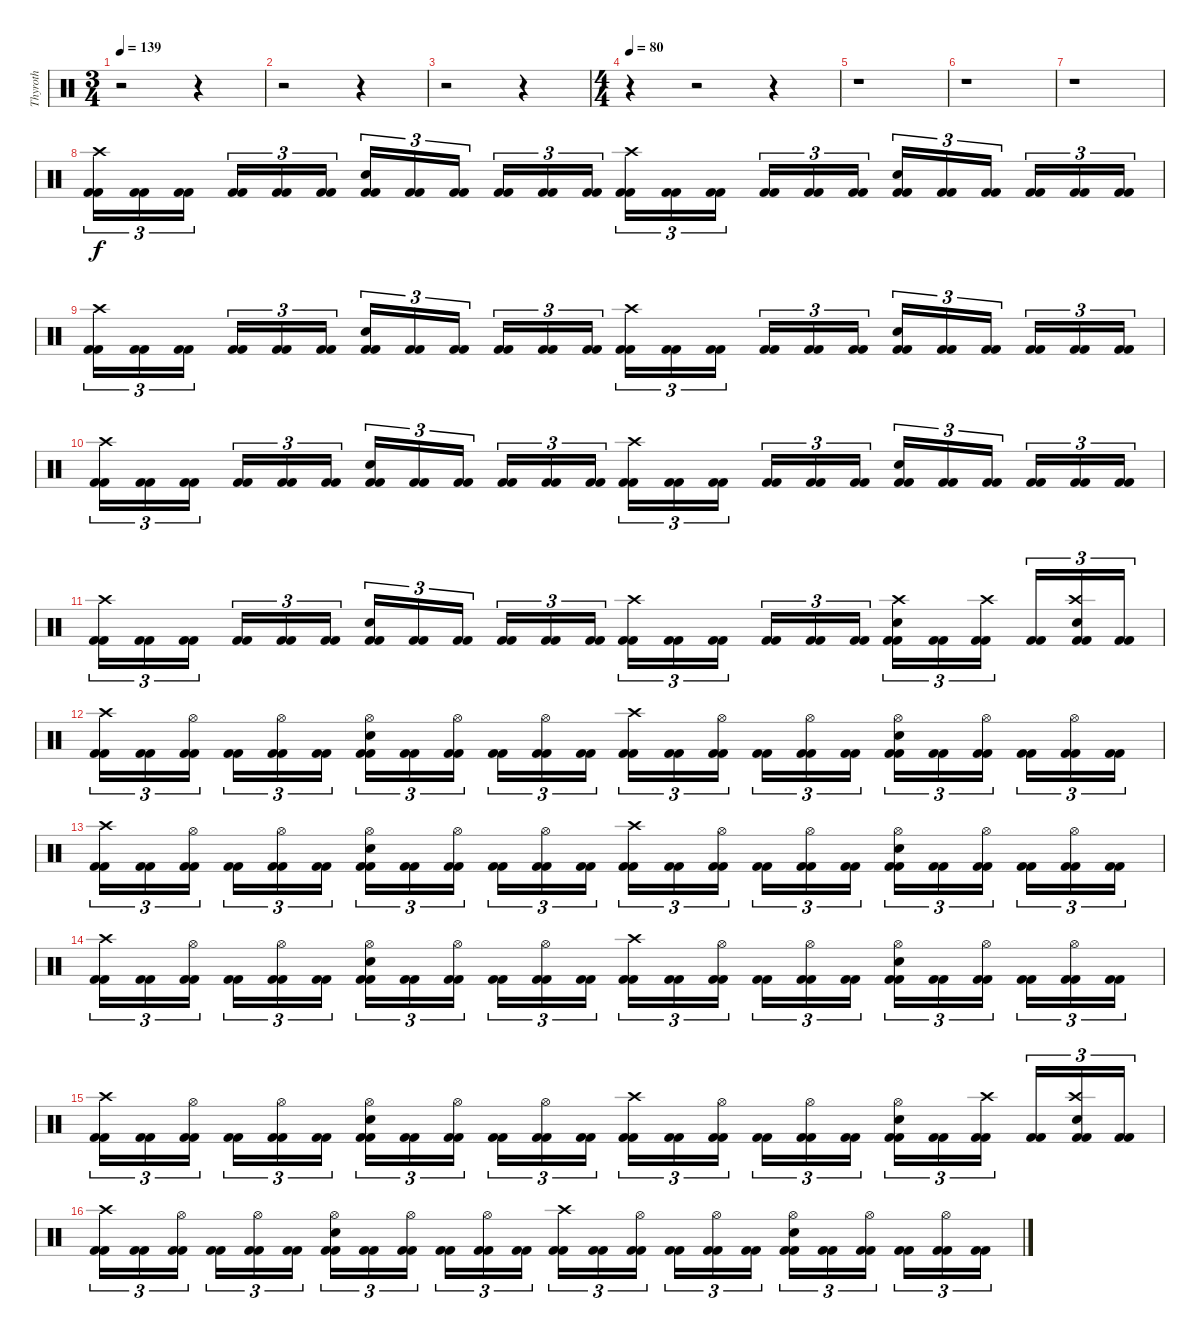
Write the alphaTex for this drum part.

\track ("Thyroth" "Thyroth") {instrument percussion}
\staff {score}
\articulation defaults
\ts (3 4)
\tempo 139
\clef neutral
\ks c
r.2{dy f} r.4 |
r.2 r.4 |
r.2 r.4 |
\ts (4 4)
\tempo 80
r.4 r.2 r.4 |
r.1 |
r.1 |
r.1{volume 0} |
("Kick (hit) 2" "Kick (hit) 2" "Crash high (hit)").16{tu (3 2) volume 16} ("Kick (hit) 2" "Kick (hit) 2").16{tu (3 2)} ("Kick (hit) 2" "Kick (hit) 2").16{tu (3 2)} ("Kick (hit) 2" "Kick (hit) 2").16{tu (3 2)} ("Kick (hit) 2" "Kick (hit) 2").16{tu (3 2)} ("Kick (hit) 2" "Kick (hit) 2").16{tu (3 2)} ("Kick (hit) 2" "Kick (hit) 2" "Snare (hit) 2").16{tu (3 2)} ("Kick (hit) 2" "Kick (hit) 2").16{tu (3 2)} ("Kick (hit) 2" "Kick (hit) 2").16{tu (3 2)} ("Kick (hit) 2" "Kick (hit) 2").16{tu (3 2)} ("Kick (hit) 2" "Kick (hit) 2").16{tu (3 2)} ("Kick (hit) 2" "Kick (hit) 2").16{tu (3 2)} ("Kick (hit) 2" "Kick (hit) 2" "Crash high (hit)").16{tu (3 2)} ("Kick (hit) 2" "Kick (hit) 2").16{tu (3 2)} ("Kick (hit) 2" "Kick (hit) 2").16{tu (3 2)} ("Kick (hit) 2" "Kick (hit) 2").16{tu (3 2)} ("Kick (hit) 2" "Kick (hit) 2").16{tu (3 2)} ("Kick (hit) 2" "Kick (hit) 2").16{tu (3 2)} ("Kick (hit) 2" "Kick (hit) 2" "Snare (hit) 2").16{tu (3 2)} ("Kick (hit) 2" "Kick (hit) 2").16{tu (3 2)} ("Kick (hit) 2" "Kick (hit) 2").16{tu (3 2)} ("Kick (hit) 2" "Kick (hit) 2").16{tu (3 2)} ("Kick (hit) 2" "Kick (hit) 2").16{tu (3 2)} ("Kick (hit) 2" "Kick (hit) 2").16{tu (3 2)} |
("Kick (hit) 2" "Kick (hit) 2" "Crash high (hit)").16{tu (3 2)} ("Kick (hit) 2" "Kick (hit) 2").16{tu (3 2)} ("Kick (hit) 2" "Kick (hit) 2").16{tu (3 2)} ("Kick (hit) 2" "Kick (hit) 2").16{tu (3 2)} ("Kick (hit) 2" "Kick (hit) 2").16{tu (3 2)} ("Kick (hit) 2" "Kick (hit) 2").16{tu (3 2)} ("Kick (hit) 2" "Kick (hit) 2" "Snare (hit) 2").16{tu (3 2)} ("Kick (hit) 2" "Kick (hit) 2").16{tu (3 2)} ("Kick (hit) 2" "Kick (hit) 2").16{tu (3 2)} ("Kick (hit) 2" "Kick (hit) 2").16{tu (3 2)} ("Kick (hit) 2" "Kick (hit) 2").16{tu (3 2)} ("Kick (hit) 2" "Kick (hit) 2").16{tu (3 2)} ("Kick (hit) 2" "Kick (hit) 2" "Crash high (hit)").16{tu (3 2)} ("Kick (hit) 2" "Kick (hit) 2").16{tu (3 2)} ("Kick (hit) 2" "Kick (hit) 2").16{tu (3 2)} ("Kick (hit) 2" "Kick (hit) 2").16{tu (3 2)} ("Kick (hit) 2" "Kick (hit) 2").16{tu (3 2)} ("Kick (hit) 2" "Kick (hit) 2").16{tu (3 2)} ("Kick (hit) 2" "Kick (hit) 2" "Snare (hit) 2").16{tu (3 2)} ("Kick (hit) 2" "Kick (hit) 2").16{tu (3 2)} ("Kick (hit) 2" "Kick (hit) 2").16{tu (3 2)} ("Kick (hit) 2" "Kick (hit) 2").16{tu (3 2)} ("Kick (hit) 2" "Kick (hit) 2").16{tu (3 2)} ("Kick (hit) 2" "Kick (hit) 2").16{tu (3 2)} |
("Kick (hit) 2" "Kick (hit) 2" "Crash high (hit)").16{tu (3 2)} ("Kick (hit) 2" "Kick (hit) 2").16{tu (3 2)} ("Kick (hit) 2" "Kick (hit) 2").16{tu (3 2)} ("Kick (hit) 2" "Kick (hit) 2").16{tu (3 2)} ("Kick (hit) 2" "Kick (hit) 2").16{tu (3 2)} ("Kick (hit) 2" "Kick (hit) 2").16{tu (3 2)} ("Kick (hit) 2" "Kick (hit) 2" "Snare (hit) 2").16{tu (3 2)} ("Kick (hit) 2" "Kick (hit) 2").16{tu (3 2)} ("Kick (hit) 2" "Kick (hit) 2").16{tu (3 2)} ("Kick (hit) 2" "Kick (hit) 2").16{tu (3 2)} ("Kick (hit) 2" "Kick (hit) 2").16{tu (3 2)} ("Kick (hit) 2" "Kick (hit) 2").16{tu (3 2)} ("Kick (hit) 2" "Kick (hit) 2" "Crash high (hit)").16{tu (3 2)} ("Kick (hit) 2" "Kick (hit) 2").16{tu (3 2)} ("Kick (hit) 2" "Kick (hit) 2").16{tu (3 2)} ("Kick (hit) 2" "Kick (hit) 2").16{tu (3 2)} ("Kick (hit) 2" "Kick (hit) 2").16{tu (3 2)} ("Kick (hit) 2" "Kick (hit) 2").16{tu (3 2)} ("Kick (hit) 2" "Kick (hit) 2" "Snare (hit) 2").16{tu (3 2)} ("Kick (hit) 2" "Kick (hit) 2").16{tu (3 2)} ("Kick (hit) 2" "Kick (hit) 2").16{tu (3 2)} ("Kick (hit) 2" "Kick (hit) 2").16{tu (3 2)} ("Kick (hit) 2" "Kick (hit) 2").16{tu (3 2)} ("Kick (hit) 2" "Kick (hit) 2").16{tu (3 2)} |
("Kick (hit) 2" "Kick (hit) 2" "Crash high (hit)").16{tu (3 2)} ("Kick (hit) 2" "Kick (hit) 2").16{tu (3 2)} ("Kick (hit) 2" "Kick (hit) 2").16{tu (3 2)} ("Kick (hit) 2" "Kick (hit) 2").16{tu (3 2)} ("Kick (hit) 2" "Kick (hit) 2").16{tu (3 2)} ("Kick (hit) 2" "Kick (hit) 2").16{tu (3 2)} ("Kick (hit) 2" "Kick (hit) 2" "Snare (hit) 2").16{tu (3 2)} ("Kick (hit) 2" "Kick (hit) 2").16{tu (3 2)} ("Kick (hit) 2" "Kick (hit) 2").16{tu (3 2)} ("Kick (hit) 2" "Kick (hit) 2").16{tu (3 2)} ("Kick (hit) 2" "Kick (hit) 2").16{tu (3 2)} ("Kick (hit) 2" "Kick (hit) 2").16{tu (3 2)} ("Kick (hit) 2" "Kick (hit) 2" "Crash high (hit)").16{tu (3 2)} ("Kick (hit) 2" "Kick (hit) 2").16{tu (3 2)} ("Kick (hit) 2" "Kick (hit) 2").16{tu (3 2)} ("Kick (hit) 2" "Kick (hit) 2").16{tu (3 2)} ("Kick (hit) 2" "Kick (hit) 2").16{tu (3 2)} ("Kick (hit) 2" "Kick (hit) 2").16{tu (3 2)} ("Kick (hit) 2" "Kick (hit) 2" "Snare (hit) 2" "Crash high (hit)").16{tu (3 2)} ("Kick (hit) 2" "Kick (hit) 2").16{tu (3 2)} ("Kick (hit) 2" "Kick (hit) 2" "Crash high (hit)").16{tu (3 2)} ("Kick (hit) 2" "Kick (hit) 2").16{tu (3 2)} ("Kick (hit) 2" "Kick (hit) 2" "Snare (hit) 2" "Crash high (hit)").16{tu (3 2)} ("Kick (hit) 2" "Kick (hit) 2").16{tu (3 2)} |
("Kick (hit) 2" "Kick (hit) 2" "Crash high (hit)").16{tu (3 2)} ("Kick (hit) 2" "Kick (hit) 2").16{tu (3 2)} ("Kick (hit) 2" "Kick (hit) 2" "Hi-Hat (open)").16{tu (3 2)} ("Kick (hit) 2" "Kick (hit) 2").16{tu (3 2)} ("Kick (hit) 2" "Kick (hit) 2" "Hi-Hat (open)").16{tu (3 2)} ("Kick (hit) 2" "Kick (hit) 2").16{tu (3 2)} ("Kick (hit) 2" "Kick (hit) 2" "Snare (hit) 2" "Hi-Hat (open)").16{tu (3 2)} ("Kick (hit) 2" "Kick (hit) 2").16{tu (3 2)} ("Kick (hit) 2" "Kick (hit) 2" "Hi-Hat (open)").16{tu (3 2)} ("Kick (hit) 2" "Kick (hit) 2").16{tu (3 2)} ("Kick (hit) 2" "Kick (hit) 2" "Hi-Hat (open)").16{tu (3 2)} ("Kick (hit) 2" "Kick (hit) 2").16{tu (3 2)} ("Kick (hit) 2" "Kick (hit) 2" "Crash high (hit)").16{tu (3 2)} ("Kick (hit) 2" "Kick (hit) 2").16{tu (3 2)} ("Kick (hit) 2" "Kick (hit) 2" "Hi-Hat (open)").16{tu (3 2)} ("Kick (hit) 2" "Kick (hit) 2").16{tu (3 2)} ("Kick (hit) 2" "Kick (hit) 2" "Hi-Hat (open)").16{tu (3 2)} ("Kick (hit) 2" "Kick (hit) 2").16{tu (3 2)} ("Kick (hit) 2" "Kick (hit) 2" "Snare (hit) 2" "Hi-Hat (open)").16{tu (3 2)} ("Kick (hit) 2" "Kick (hit) 2").16{tu (3 2)} ("Kick (hit) 2" "Kick (hit) 2" "Hi-Hat (open)").16{tu (3 2)} ("Kick (hit) 2" "Kick (hit) 2").16{tu (3 2)} ("Kick (hit) 2" "Kick (hit) 2" "Hi-Hat (open)").16{tu (3 2)} ("Kick (hit) 2" "Kick (hit) 2").16{tu (3 2)} |
("Kick (hit) 2" "Kick (hit) 2" "Crash high (hit)").16{tu (3 2)} ("Kick (hit) 2" "Kick (hit) 2").16{tu (3 2)} ("Kick (hit) 2" "Kick (hit) 2" "Hi-Hat (open)").16{tu (3 2)} ("Kick (hit) 2" "Kick (hit) 2").16{tu (3 2)} ("Kick (hit) 2" "Kick (hit) 2" "Hi-Hat (open)").16{tu (3 2)} ("Kick (hit) 2" "Kick (hit) 2").16{tu (3 2)} ("Kick (hit) 2" "Kick (hit) 2" "Snare (hit) 2" "Hi-Hat (open)").16{tu (3 2)} ("Kick (hit) 2" "Kick (hit) 2").16{tu (3 2)} ("Kick (hit) 2" "Kick (hit) 2" "Hi-Hat (open)").16{tu (3 2)} ("Kick (hit) 2" "Kick (hit) 2").16{tu (3 2)} ("Kick (hit) 2" "Kick (hit) 2" "Hi-Hat (open)").16{tu (3 2)} ("Kick (hit) 2" "Kick (hit) 2").16{tu (3 2)} ("Kick (hit) 2" "Kick (hit) 2" "Crash high (hit)").16{tu (3 2)} ("Kick (hit) 2" "Kick (hit) 2").16{tu (3 2)} ("Kick (hit) 2" "Kick (hit) 2" "Hi-Hat (open)").16{tu (3 2)} ("Kick (hit) 2" "Kick (hit) 2").16{tu (3 2)} ("Kick (hit) 2" "Kick (hit) 2" "Hi-Hat (open)").16{tu (3 2)} ("Kick (hit) 2" "Kick (hit) 2").16{tu (3 2)} ("Kick (hit) 2" "Kick (hit) 2" "Snare (hit) 2" "Hi-Hat (open)").16{tu (3 2)} ("Kick (hit) 2" "Kick (hit) 2").16{tu (3 2)} ("Kick (hit) 2" "Kick (hit) 2" "Hi-Hat (open)").16{tu (3 2)} ("Kick (hit) 2" "Kick (hit) 2").16{tu (3 2)} ("Kick (hit) 2" "Kick (hit) 2" "Hi-Hat (open)").16{tu (3 2)} ("Kick (hit) 2" "Kick (hit) 2").16{tu (3 2)} |
("Kick (hit) 2" "Kick (hit) 2" "Crash high (hit)").16{tu (3 2)} ("Kick (hit) 2" "Kick (hit) 2").16{tu (3 2)} ("Kick (hit) 2" "Kick (hit) 2" "Hi-Hat (open)").16{tu (3 2)} ("Kick (hit) 2" "Kick (hit) 2").16{tu (3 2)} ("Kick (hit) 2" "Kick (hit) 2" "Hi-Hat (open)").16{tu (3 2)} ("Kick (hit) 2" "Kick (hit) 2").16{tu (3 2)} ("Kick (hit) 2" "Kick (hit) 2" "Snare (hit) 2" "Hi-Hat (open)").16{tu (3 2)} ("Kick (hit) 2" "Kick (hit) 2").16{tu (3 2)} ("Kick (hit) 2" "Kick (hit) 2" "Hi-Hat (open)").16{tu (3 2)} ("Kick (hit) 2" "Kick (hit) 2").16{tu (3 2)} ("Kick (hit) 2" "Kick (hit) 2" "Hi-Hat (open)").16{tu (3 2)} ("Kick (hit) 2" "Kick (hit) 2").16{tu (3 2)} ("Kick (hit) 2" "Kick (hit) 2" "Crash high (hit)").16{tu (3 2)} ("Kick (hit) 2" "Kick (hit) 2").16{tu (3 2)} ("Kick (hit) 2" "Kick (hit) 2" "Hi-Hat (open)").16{tu (3 2)} ("Kick (hit) 2" "Kick (hit) 2").16{tu (3 2)} ("Kick (hit) 2" "Kick (hit) 2" "Hi-Hat (open)").16{tu (3 2)} ("Kick (hit) 2" "Kick (hit) 2").16{tu (3 2)} ("Kick (hit) 2" "Kick (hit) 2" "Snare (hit) 2" "Hi-Hat (open)").16{tu (3 2)} ("Kick (hit) 2" "Kick (hit) 2").16{tu (3 2)} ("Kick (hit) 2" "Kick (hit) 2" "Hi-Hat (open)").16{tu (3 2)} ("Kick (hit) 2" "Kick (hit) 2").16{tu (3 2)} ("Kick (hit) 2" "Kick (hit) 2" "Hi-Hat (open)").16{tu (3 2)} ("Kick (hit) 2" "Kick (hit) 2").16{tu (3 2)} |
("Kick (hit) 2" "Kick (hit) 2" "Crash high (hit)").16{tu (3 2)} ("Kick (hit) 2" "Kick (hit) 2").16{tu (3 2)} ("Kick (hit) 2" "Kick (hit) 2" "Hi-Hat (open)").16{tu (3 2)} ("Kick (hit) 2" "Kick (hit) 2").16{tu (3 2)} ("Kick (hit) 2" "Kick (hit) 2" "Hi-Hat (open)").16{tu (3 2)} ("Kick (hit) 2" "Kick (hit) 2").16{tu (3 2)} ("Kick (hit) 2" "Kick (hit) 2" "Snare (hit) 2" "Hi-Hat (open)").16{tu (3 2)} ("Kick (hit) 2" "Kick (hit) 2").16{tu (3 2)} ("Kick (hit) 2" "Kick (hit) 2" "Hi-Hat (open)").16{tu (3 2)} ("Kick (hit) 2" "Kick (hit) 2").16{tu (3 2)} ("Kick (hit) 2" "Kick (hit) 2" "Hi-Hat (open)").16{tu (3 2)} ("Kick (hit) 2" "Kick (hit) 2").16{tu (3 2)} ("Kick (hit) 2" "Kick (hit) 2" "Crash high (hit)").16{tu (3 2)} ("Kick (hit) 2" "Kick (hit) 2").16{tu (3 2)} ("Kick (hit) 2" "Kick (hit) 2" "Hi-Hat (open)").16{tu (3 2)} ("Kick (hit) 2" "Kick (hit) 2").16{tu (3 2)} ("Kick (hit) 2" "Kick (hit) 2" "Hi-Hat (open)").16{tu (3 2)} ("Kick (hit) 2" "Kick (hit) 2").16{tu (3 2)} ("Kick (hit) 2" "Kick (hit) 2" "Snare (hit) 2" "Hi-Hat (open)").16{tu (3 2)} ("Kick (hit) 2" "Kick (hit) 2").16{tu (3 2)} ("Kick (hit) 2" "Kick (hit) 2" "Crash high (hit)").16{tu (3 2)} ("Kick (hit) 2" "Kick (hit) 2").16{tu (3 2)} ("Kick (hit) 2" "Kick (hit) 2" "Snare (hit) 2" "Crash high (hit)").16{tu (3 2)} ("Kick (hit) 2" "Kick (hit) 2").16{tu (3 2)} |
("Kick (hit) 2" "Kick (hit) 2" "Crash high (hit)").16{tu (3 2)} ("Kick (hit) 2" "Kick (hit) 2").16{tu (3 2)} ("Kick (hit) 2" "Kick (hit) 2" "Hi-Hat (open)").16{tu (3 2)} ("Kick (hit) 2" "Kick (hit) 2").16{tu (3 2)} ("Kick (hit) 2" "Kick (hit) 2" "Hi-Hat (open)").16{tu (3 2)} ("Kick (hit) 2" "Kick (hit) 2").16{tu (3 2)} ("Kick (hit) 2" "Kick (hit) 2" "Snare (hit) 2" "Hi-Hat (open)").16{tu (3 2)} ("Kick (hit) 2" "Kick (hit) 2").16{tu (3 2)} ("Kick (hit) 2" "Kick (hit) 2" "Hi-Hat (open)").16{tu (3 2)} ("Kick (hit) 2" "Kick (hit) 2").16{tu (3 2)} ("Kick (hit) 2" "Kick (hit) 2" "Hi-Hat (open)").16{tu (3 2)} ("Kick (hit) 2" "Kick (hit) 2").16{tu (3 2)} ("Kick (hit) 2" "Kick (hit) 2" "Crash high (hit)").16{tu (3 2)} ("Kick (hit) 2" "Kick (hit) 2").16{tu (3 2)} ("Kick (hit) 2" "Kick (hit) 2" "Hi-Hat (open)").16{tu (3 2)} ("Kick (hit) 2" "Kick (hit) 2").16{tu (3 2)} ("Kick (hit) 2" "Kick (hit) 2" "Hi-Hat (open)").16{tu (3 2)} ("Kick (hit) 2" "Kick (hit) 2").16{tu (3 2)} ("Kick (hit) 2" "Kick (hit) 2" "Snare (hit) 2" "Hi-Hat (open)").16{tu (3 2)} ("Kick (hit) 2" "Kick (hit) 2").16{tu (3 2)} ("Kick (hit) 2" "Kick (hit) 2" "Hi-Hat (open)").16{tu (3 2)} ("Kick (hit) 2" "Kick (hit) 2").16{tu (3 2)} ("Kick (hit) 2" "Kick (hit) 2" "Hi-Hat (open)").16{tu (3 2)} ("Kick (hit) 2" "Kick (hit) 2").16{tu (3 2)}
